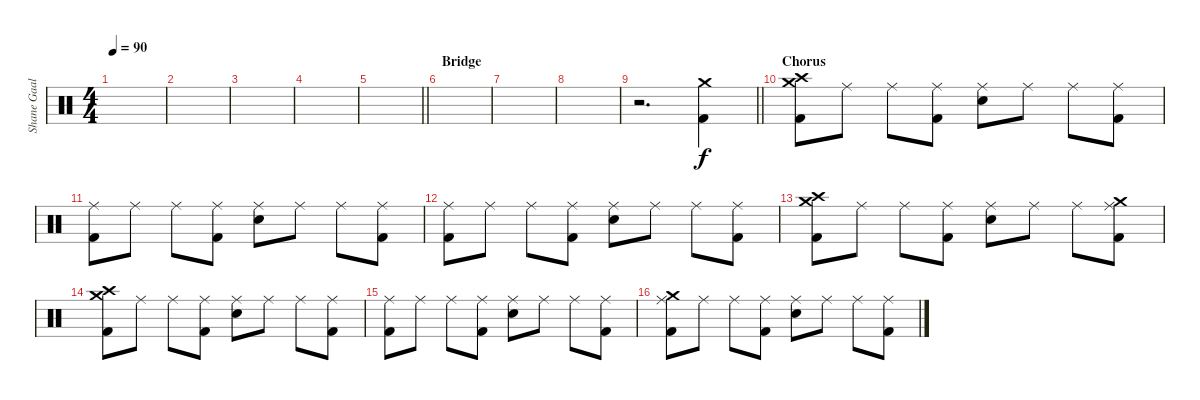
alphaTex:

\track ("Shane Gaalaas" "Shane Gaal") {instrument percussion}
\staff {score}
\articulation defaults
\ts (4 4)
\tempo 90
\clef neutral
\ks c
|
|
|
|
\barLineRight lightlight
|
\section ("" "Bridge")
|
|
|
\barLineRight lightlight
r.2{d} ("Crash medium (hit)" "Kick (hit) 2").4 |
\section ("" "Chorus")
("Crash high (hit)" "Crash medium (hit)" "Kick (hit) 2").8 "Ride (middle)".8 "Ride (middle)".8 ("Ride (middle)" "Kick (hit) 2").8 ("Ride (middle)" "Electric Snare (hit)").8 "Ride (middle)".8 "Ride (middle)".8 ("Ride (middle)" "Kick (hit) 2").8 |
("Ride (middle)" "Kick (hit) 2").8 "Ride (middle)".8 "Ride (middle)".8 ("Ride (middle)" "Kick (hit) 2").8 ("Ride (middle)" "Electric Snare (hit)").8 "Ride (middle)".8 "Ride (middle)".8 ("Ride (middle)" "Kick (hit) 2").8 |
("Ride (middle)" "Kick (hit) 2").8 "Ride (middle)".8 "Ride (middle)".8 ("Ride (middle)" "Kick (hit) 2").8 ("Ride (middle)" "Electric Snare (hit)").8 "Ride (middle)".8 "Ride (middle)".8 ("Ride (middle)" "Kick (hit) 2").8 |
("Crash high (hit)" "Crash medium (hit)" "Kick (hit) 2").8 "Ride (middle)".8 "Ride (middle)".8 ("Ride (middle)" "Kick (hit) 2").8 ("Ride (middle)" "Electric Snare (hit)").8 "Ride (middle)".8 "Ride (middle)".8 ("Crash medium (hit)" "Ride (middle)" "Kick (hit) 2").8 |
("Crash high (hit)" "Crash medium (hit)" "Kick (hit) 2").8 "Ride (middle)".8 "Ride (middle)".8 ("Ride (middle)" "Kick (hit) 2").8 ("Ride (middle)" "Electric Snare (hit)").8 "Ride (middle)".8 "Ride (middle)".8 ("Ride (middle)" "Kick (hit) 2").8 |
("Ride (middle)" "Kick (hit) 2").8 "Ride (middle)".8 "Ride (middle)".8 ("Ride (middle)" "Kick (hit) 2").8 ("Ride (middle)" "Electric Snare (hit)").8 "Ride (middle)".8 "Ride (middle)".8 ("Ride (middle)" "Kick (hit) 2").8 |
("Crash medium (hit)" "Ride (middle)" "Kick (hit) 2").8 "Ride (middle)".8 "Ride (middle)".8 ("Ride (middle)" "Kick (hit) 2").8 ("Ride (middle)" "Electric Snare (hit)").8 "Ride (middle)".8 "Ride (middle)".8 ("Ride (middle)" "Kick (hit) 2").8
